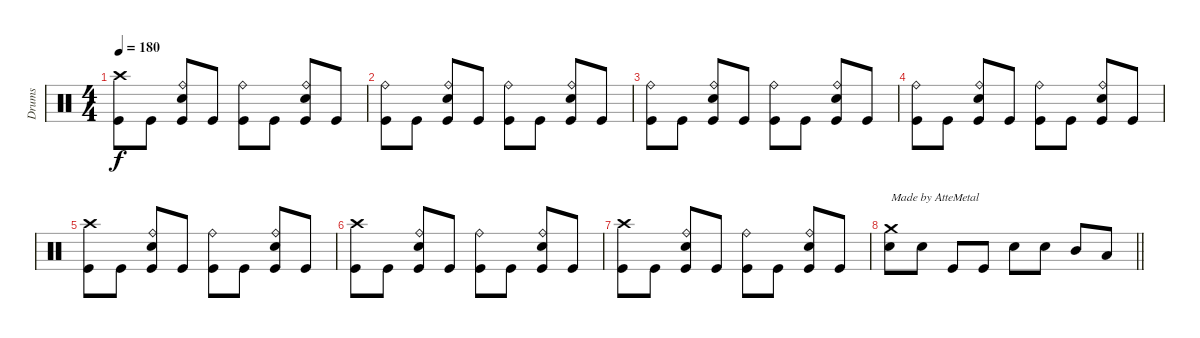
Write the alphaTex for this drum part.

\track ("Drums" "Drums") {instrument percussion}
\staff {score}
\articulation defaults
\ts (4 4)
\tempo 180
\clef neutral
\ks c
("Crash high (hit)" "Kick (hit)").8{dy f} "Kick (hit)".8 ("Ride (bell)" "Snare (hit) 2" "Kick (hit)").8 "Kick (hit)".8 ("Ride (bell)" "Kick (hit)").8 "Kick (hit)".8 ("Ride (bell)" "Snare (hit) 2" "Kick (hit)").8 "Kick (hit)".8 |
("Ride (bell)" "Kick (hit)").8 "Kick (hit)".8 ("Ride (bell)" "Snare (hit) 2" "Kick (hit)").8 "Kick (hit)".8 ("Ride (bell)" "Kick (hit)").8 "Kick (hit)".8 ("Ride (bell)" "Snare (hit) 2" "Kick (hit)").8 "Kick (hit)".8 |
("Ride (bell)" "Kick (hit)").8 "Kick (hit)".8 ("Ride (bell)" "Snare (hit) 2" "Kick (hit)").8 "Kick (hit)".8 ("Ride (bell)" "Kick (hit)").8 "Kick (hit)".8 ("Ride (bell)" "Snare (hit) 2" "Kick (hit)").8 "Kick (hit)".8 |
("Ride (bell)" "Kick (hit)").8 "Kick (hit)".8 ("Ride (bell)" "Snare (hit) 2" "Kick (hit)").8 "Kick (hit)".8 ("Ride (bell)" "Kick (hit)").8 "Kick (hit)".8 ("Ride (bell)" "Snare (hit) 2" "Kick (hit)").8 "Kick (hit)".8 |
("Crash high (hit)" "Kick (hit)").8 "Kick (hit)".8 ("Ride (bell)" "Snare (hit) 2" "Kick (hit)").8 "Kick (hit)".8 ("Ride (bell)" "Kick (hit)").8 "Kick (hit)".8 ("Ride (bell)" "Snare (hit) 2" "Kick (hit)").8 "Kick (hit)".8 |
("Crash high (hit)" "Kick (hit)").8 "Kick (hit)".8 ("Ride (bell)" "Snare (hit) 2" "Kick (hit)").8 "Kick (hit)".8 ("Ride (bell)" "Kick (hit)").8 "Kick (hit)".8 ("Ride (bell)" "Snare (hit) 2" "Kick (hit)").8 "Kick (hit)".8 |
("Crash high (hit)" "Kick (hit)").8 "Kick (hit)".8 ("Ride (bell)" "Snare (hit) 2" "Kick (hit)").8 "Kick (hit)".8 ("Ride (bell)" "Kick (hit)").8 "Kick (hit)".8 ("Ride (bell)" "Snare (hit) 2" "Kick (hit)").8 "Kick (hit)".8 |
\barLineRight lightlight
("Crash medium (hit)" "Snare (hit) 2").8{txt "Made by AtteMetal"} "Snare (hit) 2".8 "Kick (hit)".8 "Kick (hit)".8 "Snare (hit) 2".8 "Snare (hit) 2".8 "Mid Tom (hit)".8 "Low Tom (hit)".8
